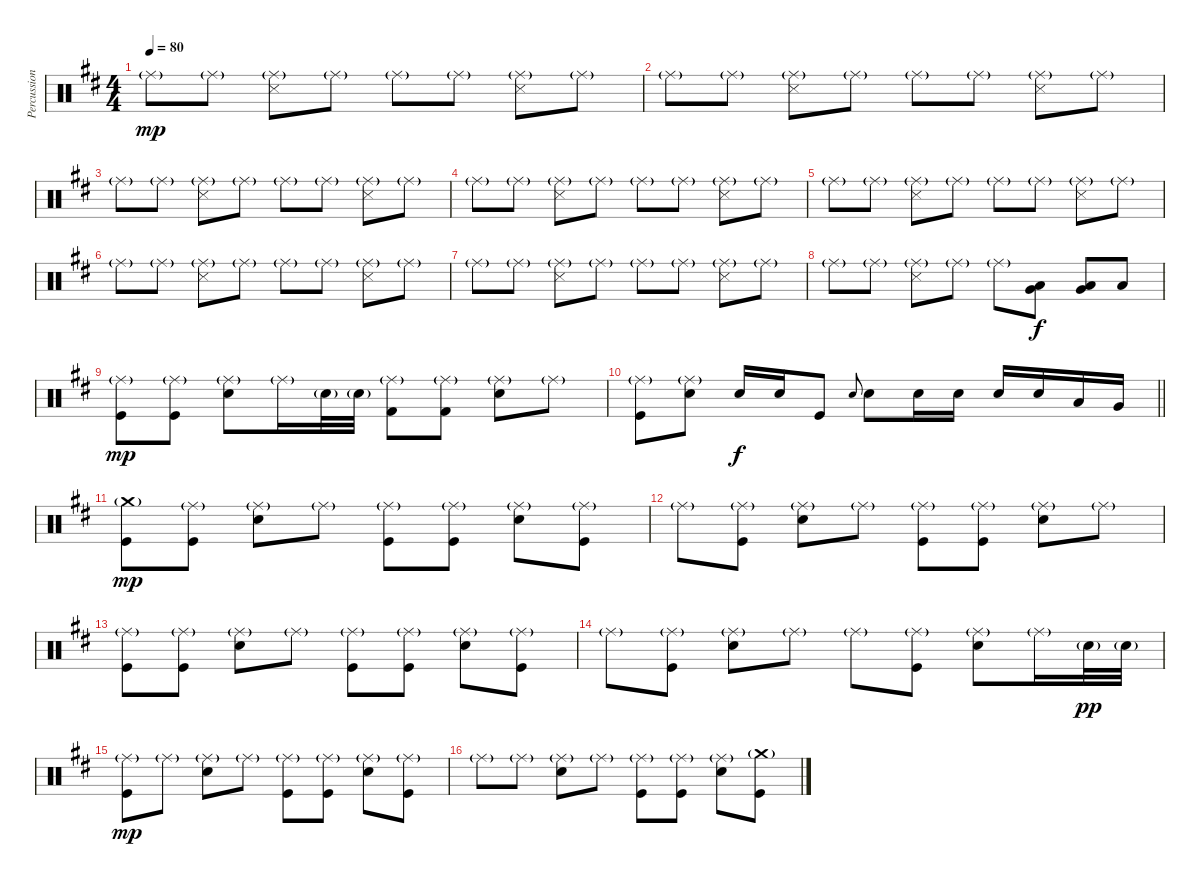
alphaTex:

\track ("Percussion" "Percussion") {instrument percussion}
\staff {score}
\articulation defaults
\ts (4 4)
\tempo 80
\clef neutral
\ks d "Ride (middle)"{g}.8{dy mp} "Ride (middle)"{g}.8
("Ride (middle)"{g} "Snare (side stick) 3").8 "Ride (middle)"{g}.8 "Ride (middle)"{g}.8 "Ride (middle)"{g}.8 ("Ride (middle)"{g} "Snare (side stick) 3").8 "Ride (middle)"{g}.8 |
"Ride (middle)"{g}.8 "Ride (middle)"{g}.8 ("Ride (middle)"{g} "Snare (side stick) 3").8 "Ride (middle)"{g}.8 "Ride (middle)"{g}.8 "Ride (middle)"{g}.8 ("Ride (middle)"{g} "Snare (side stick) 3").8 "Ride (middle)"{g}.8 |
"Ride (middle)"{g}.8 "Ride (middle)"{g}.8 ("Ride (middle)"{g} "Snare (side stick) 3").8 "Ride (middle)"{g}.8 "Ride (middle)"{g}.8 "Ride (middle)"{g}.8 ("Ride (middle)"{g} "Snare (side stick) 3").8 "Ride (middle)"{g}.8 |
"Ride (middle)"{g}.8 "Ride (middle)"{g}.8 ("Ride (middle)"{g} "Snare (side stick) 3").8 "Ride (middle)"{g}.8 "Ride (middle)"{g}.8 "Ride (middle)"{g}.8 ("Ride (middle)"{g} "Snare (side stick) 3").8 "Ride (middle)"{g}.8 |
"Ride (middle)"{g}.8 "Ride (middle)"{g}.8 ("Ride (middle)"{g} "Snare (side stick) 3").8 "Ride (middle)"{g}.8 "Ride (middle)"{g}.8 "Ride (middle)"{g}.8 ("Ride (middle)"{g} "Snare (side stick) 3").8 "Ride (middle)"{g}.8 |
"Ride (middle)"{g}.8 "Ride (middle)"{g}.8 ("Ride (middle)"{g} "Snare (side stick) 3").8 "Ride (middle)"{g}.8 "Ride (middle)"{g}.8 "Ride (middle)"{g}.8 ("Ride (middle)"{g} "Snare (side stick) 3").8 "Ride (middle)"{g}.8 |
"Ride (middle)"{g}.8 "Ride (middle)"{g}.8 ("Ride (middle)"{g} "Snare (side stick) 3").8 "Ride (middle)"{g}.8 "Ride (middle)"{g}.8 "Ride (middle)"{g}.8 ("Ride (middle)"{g} "Snare (side stick) 3").8 "Ride (middle)"{g}.8 |
"Ride (middle)"{g}.8 "Ride (middle)"{g}.8 ("Ride (middle)"{g} "Snare (side stick) 3").8 "Ride (middle)"{g}.8 "Ride (middle)"{g}.8 ("Low Floor Tom (hit)" "Very Low Tom (hit)").8{dy f} ("Low Floor Tom (hit)" "Very Low Tom (hit)").8 "Low Tom (hit)".8 |
("Ride (middle)"{g} "Kick (hit)").8{dy mp} ("Ride (middle)"{g} "Kick (hit)").8 ("Ride (middle)"{g} "Snare (hit) 2").8 "Ride (middle)"{g}.16 "Snare (hit) 2"{g}.32 "Snare (hit) 2"{g}.32 ("Ride (middle)"{g} "Kick (hit) 2").8 ("Ride (middle)"{g} "Kick (hit) 2").8 ("Ride (middle)"{g} "Snare (hit) 2").8 "Ride (middle)"{g}.8 |
\barLineRight lightlight
("Ride (middle)"{g} "Kick (hit)").8 ("Ride (middle)"{g} "Snare (hit) 2").8 "Snare (hit) 2".16{dy f} "Snare (hit) 2".16 "Kick (hit)".8 "Snare (hit) 2".8{gr onbeat} "Snare (hit) 2".8 "Snare (hit) 2".16 "Snare (hit) 2".16 "Snare (hit) 2".16 "Snare (hit) 2".16 "Low Tom (hit)".16 "Very Low Tom (hit)".16 |
("Crash medium (hit)"{g} "Kick (hit)").8{dy mp} ("Ride (middle)"{g} "Kick (hit)").8 ("Ride (middle)"{g} "Snare (hit) 2").8 "Ride (middle)"{g}.8 ("Ride (middle)"{g} "Kick (hit)").8 ("Ride (middle)"{g} "Kick (hit)").8 ("Ride (middle)"{g} "Snare (hit) 2").8 ("Ride (middle)"{g} "Kick (hit)").8 |
"Ride (middle)"{g}.8 ("Ride (middle)"{g} "Kick (hit)").8 ("Ride (middle)"{g} "Snare (hit) 2").8 "Ride (middle)"{g}.8 ("Ride (middle)"{g} "Kick (hit)").8 ("Ride (middle)"{g} "Kick (hit)").8 ("Ride (middle)"{g} "Snare (hit) 2").8 "Ride (middle)"{g}.8 |
("Ride (middle)"{g} "Kick (hit)").8 ("Ride (middle)"{g} "Kick (hit)").8 ("Ride (middle)"{g} "Snare (hit) 2").8 "Ride (middle)"{g}.8 ("Ride (middle)"{g} "Kick (hit)").8 ("Ride (middle)"{g} "Kick (hit)").8 ("Ride (middle)"{g} "Snare (hit) 2").8 ("Ride (middle)"{g} "Kick (hit)").8 |
"Ride (middle)"{g}.8 ("Ride (middle)"{g} "Kick (hit)").8 ("Ride (middle)"{g} "Snare (hit) 2").8 "Ride (middle)"{g}.8 "Ride (middle)"{g}.8 ("Ride (middle)"{g} "Kick (hit)").8 ("Ride (middle)"{g} "Snare (hit) 2").8 "Ride (middle)"{g}.16 "Snare (hit) 2"{g}.32{dy pp} "Snare (hit) 2"{g}.32 |
("Ride (middle)"{g} "Kick (hit)").8{dy mp} "Ride (middle)"{g}.8 ("Ride (middle)"{g} "Snare (hit) 2").8 "Ride (middle)"{g}.8 ("Ride (middle)"{g} "Kick (hit)").8 ("Ride (middle)"{g} "Kick (hit)").8 ("Ride (middle)"{g} "Snare (hit) 2").8 ("Ride (middle)"{g} "Kick (hit)").8 |
"Ride (middle)"{g}.8 "Ride (middle)"{g}.8 ("Ride (middle)"{g} "Snare (hit) 2").8 "Ride (middle)"{g}.8 ("Ride (middle)"{g} "Kick (hit)").8 ("Ride (middle)"{g} "Kick (hit)").8 ("Ride (middle)"{g} "Snare (hit) 2").8 ("Crash medium (hit)"{g} "Kick (hit)").8
